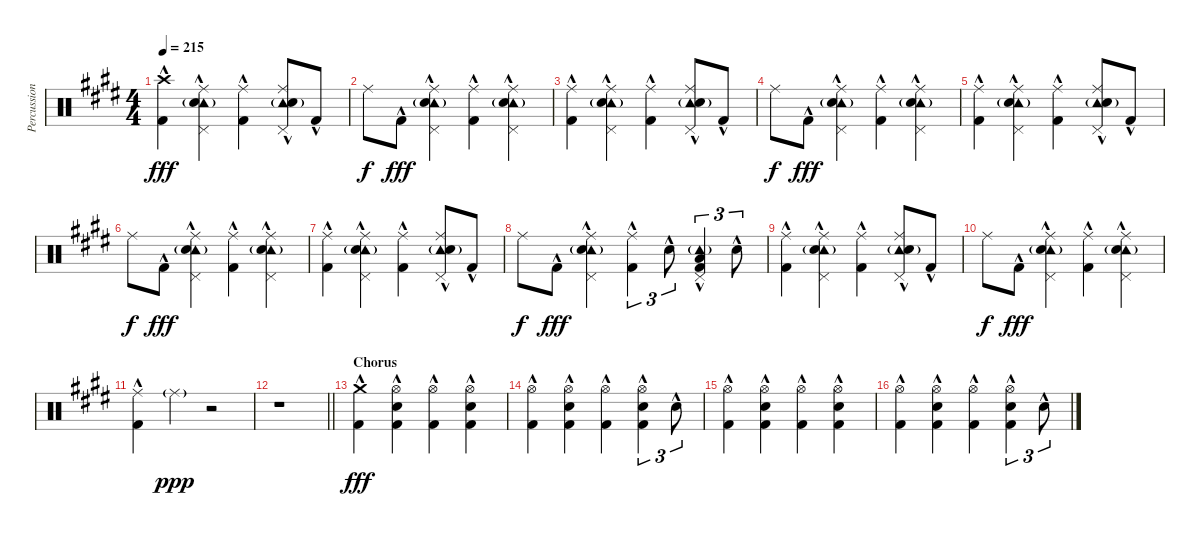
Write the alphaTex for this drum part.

\track ("Percussion" "Percussion") {instrument percussion}
\staff {score}
\articulation defaults
\ts (4 4)
\tempo 215
\clef neutral
\ks e
("Crash high (hit)" "Kick (hit) 2"{hac}).4{dy fff} ("Tambourine (hit)"{g} "Pedal Hi-Hat (hit)" "Ride (middle)" "Electric Snare (hit)"{hac}).4 ("Ride (middle)" "Kick (hit) 2"{hac}).4 ("Tambourine (hit)"{g} "Pedal Hi-Hat (hit)" "Ride (middle)" "Electric Snare (hit)"{hac}).8 "Kick (hit) 2"{hac}.8 |
"Ride (middle)".8{dy f} "Kick (hit) 2"{hac}.8{dy fff} ("Tambourine (hit)"{g} "Pedal Hi-Hat (hit)" "Ride (middle)" "Electric Snare (hit)"{hac}).4 ("Ride (middle)" "Kick (hit) 2"{hac}).4 ("Tambourine (hit)"{g} "Pedal Hi-Hat (hit)" "Ride (middle)" "Electric Snare (hit)"{hac}).4 |
("Ride (middle)" "Kick (hit) 2"{hac}).4 ("Tambourine (hit)"{g} "Pedal Hi-Hat (hit)" "Ride (middle)" "Electric Snare (hit)"{hac}).4 ("Ride (middle)" "Kick (hit) 2"{hac}).4 ("Tambourine (hit)"{g} "Pedal Hi-Hat (hit)" "Ride (middle)" "Electric Snare (hit)"{hac}).8 "Kick (hit) 2"{hac}.8 |
"Ride (middle)".8{dy f} "Kick (hit) 2"{hac}.8{dy fff} ("Tambourine (hit)"{g} "Pedal Hi-Hat (hit)" "Ride (middle)" "Electric Snare (hit)"{hac}).4 ("Ride (middle)" "Kick (hit) 2"{hac}).4 ("Tambourine (hit)"{g} "Pedal Hi-Hat (hit)" "Ride (middle)" "Electric Snare (hit)"{hac}).4 |
("Ride (middle)" "Kick (hit) 2"{hac}).4 ("Tambourine (hit)"{g} "Pedal Hi-Hat (hit)" "Ride (middle)" "Electric Snare (hit)"{hac}).4 ("Ride (middle)" "Kick (hit) 2"{hac}).4 ("Tambourine (hit)"{g} "Pedal Hi-Hat (hit)" "Ride (middle)" "Electric Snare (hit)"{hac}).8 "Kick (hit) 2"{hac}.8 |
"Ride (middle)".8{dy f} "Kick (hit) 2"{hac}.8{dy fff} ("Tambourine (hit)"{g} "Pedal Hi-Hat (hit)" "Ride (middle)" "Electric Snare (hit)"{hac}).4 ("Ride (middle)" "Kick (hit) 2"{hac}).4 ("Tambourine (hit)"{g} "Pedal Hi-Hat (hit)" "Ride (middle)" "Electric Snare (hit)"{hac}).4 |
("Ride (middle)" "Kick (hit) 2"{hac}).4 ("Tambourine (hit)"{g} "Pedal Hi-Hat (hit)" "Ride (middle)" "Electric Snare (hit)"{hac}).4 ("Ride (middle)" "Kick (hit) 2"{hac}).4 ("Tambourine (hit)"{g} "Pedal Hi-Hat (hit)" "Ride (middle)" "Electric Snare (hit)"{hac}).8 "Kick (hit) 2"{hac}.8 |
"Ride (middle)".8{dy f} "Kick (hit) 2"{hac}.8{dy fff} ("Tambourine (hit)"{g} "Pedal Hi-Hat (hit)" "Ride (middle)" "Electric Snare (hit)"{hac}).4 ("Ride (middle)" "Kick (hit) 2"{hac}).4{tu (3 2)} "Electric Snare (hit)"{hac}.8{tu (3 2)} ("Tambourine (hit)"{g} "Pedal Hi-Hat (hit)" "Low Tom (hit)"{hac} "Kick (hit) 2"{hac}).4{tu (3 2)} "Electric Snare (hit)"{hac}.8{tu (3 2)} |
("Ride (middle)" "Kick (hit) 2"{hac}).4 ("Tambourine (hit)"{g} "Pedal Hi-Hat (hit)" "Ride (middle)" "Electric Snare (hit)"{hac}).4 ("Ride (middle)" "Kick (hit) 2"{hac}).4 ("Tambourine (hit)"{g} "Pedal Hi-Hat (hit)" "Ride (middle)" "Electric Snare (hit)"{hac}).8 "Kick (hit) 2"{hac}.8 |
"Ride (middle)".8{dy f} "Kick (hit) 2"{hac}.8{dy fff} ("Tambourine (hit)"{g} "Pedal Hi-Hat (hit)" "Ride (middle)" "Electric Snare (hit)"{hac}).4 ("Ride (middle)" "Kick (hit) 2"{hac}).4 ("Tambourine (hit)"{g} "Pedal Hi-Hat (hit)" "Ride (middle)" "Electric Snare (hit)"{hac}).4 |
("Ride (middle)" "Kick (hit) 2"{hac}).4 "Ride (middle)"{g}.4{dy ppp} r.2 |
\barLineRight lightlight
r.1 |
\section ("" "Chorus")
("Crash medium (hit)" "Kick (hit) 2"{hac}).4{dy fff} ("Hi-Hat (open)" "Electric Snare (hit)"{hac} "Kick (hit) 2"{hac}).4 ("Hi-Hat (open)" "Kick (hit) 2"{hac}).4 ("Hi-Hat (open)" "Electric Snare (hit)"{hac} "Kick (hit) 2"{hac}).4 |
("Hi-Hat (open)" "Kick (hit) 2"{hac}).4 ("Hi-Hat (open)" "Electric Snare (hit)"{hac} "Kick (hit) 2"{hac}).4 ("Hi-Hat (open)" "Kick (hit) 2"{hac}).4 ("Hi-Hat (open)" "Electric Snare (hit)"{hac} "Kick (hit) 2"{hac}).4{tu (3 2)} "Electric Snare (hit)"{hac}.8{tu (3 2)} |
("Hi-Hat (open)" "Kick (hit) 2"{hac}).4 ("Hi-Hat (open)" "Electric Snare (hit)"{hac} "Kick (hit) 2"{hac}).4 ("Hi-Hat (open)" "Kick (hit) 2"{hac}).4 ("Hi-Hat (open)" "Electric Snare (hit)"{hac} "Kick (hit) 2"{hac}).4 |
("Hi-Hat (open)" "Kick (hit) 2"{hac}).4 ("Hi-Hat (open)" "Electric Snare (hit)"{hac} "Kick (hit) 2"{hac}).4 ("Hi-Hat (open)" "Kick (hit) 2"{hac}).4 ("Hi-Hat (open)" "Electric Snare (hit)"{hac} "Kick (hit) 2"{hac}).4{tu (3 2)} "Electric Snare (hit)"{hac}.8{tu (3 2)}
